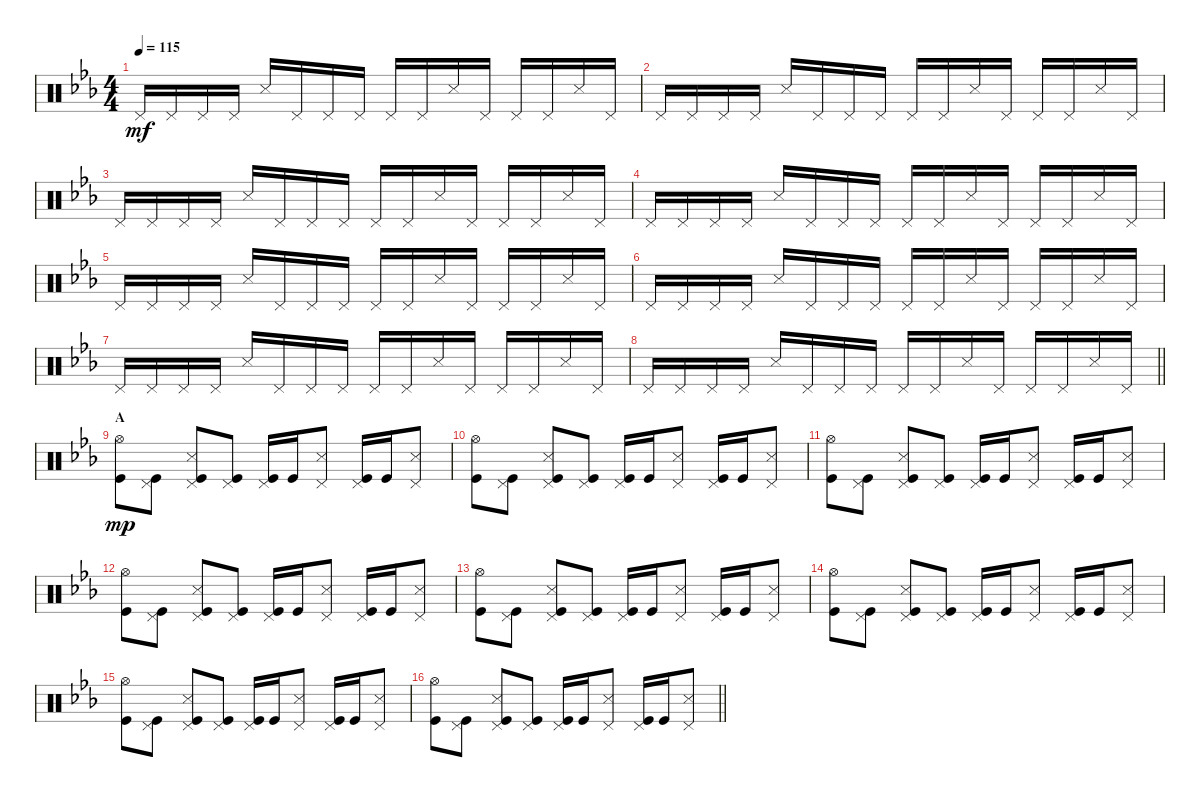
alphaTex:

\track "" {instrument percussion}
\staff {score}
\articulation defaults
\ts (4 4)
\tempo 115
\clef neutral
\ks cminor "Pedal Hi-Hat (hit)".16{dy mf} "Pedal Hi-Hat (hit)".16 "Pedal Hi-Hat (hit)".16 "Pedal Hi-Hat (hit)".16 "Snare (side stick) 3".16 "Pedal Hi-Hat (hit)".16 "Pedal Hi-Hat (hit)".16 "Pedal Hi-Hat (hit)".16 "Pedal Hi-Hat (hit)".16 "Pedal Hi-Hat (hit)".16 "Snare (side stick) 3".16 "Pedal Hi-Hat (hit)".16 "Pedal Hi-Hat (hit)".16 "Pedal Hi-Hat (hit)".16 "Snare (side stick) 3".16 "Pedal Hi-Hat (hit)".16
|
"Pedal Hi-Hat (hit)".16 "Pedal Hi-Hat (hit)".16 "Pedal Hi-Hat (hit)".16 "Pedal Hi-Hat (hit)".16 "Snare (side stick) 3".16 "Pedal Hi-Hat (hit)".16 "Pedal Hi-Hat (hit)".16 "Pedal Hi-Hat (hit)".16 "Pedal Hi-Hat (hit)".16 "Pedal Hi-Hat (hit)".16 "Snare (side stick) 3".16 "Pedal Hi-Hat (hit)".16 "Pedal Hi-Hat (hit)".16 "Pedal Hi-Hat (hit)".16 "Snare (side stick) 3".16 "Pedal Hi-Hat (hit)".16 |
"Pedal Hi-Hat (hit)".16 "Pedal Hi-Hat (hit)".16 "Pedal Hi-Hat (hit)".16 "Pedal Hi-Hat (hit)".16 "Snare (side stick) 3".16 "Pedal Hi-Hat (hit)".16 "Pedal Hi-Hat (hit)".16 "Pedal Hi-Hat (hit)".16 "Pedal Hi-Hat (hit)".16 "Pedal Hi-Hat (hit)".16 "Snare (side stick) 3".16 "Pedal Hi-Hat (hit)".16 "Pedal Hi-Hat (hit)".16 "Pedal Hi-Hat (hit)".16 "Snare (side stick) 3".16 "Pedal Hi-Hat (hit)".16 |
"Pedal Hi-Hat (hit)".16 "Pedal Hi-Hat (hit)".16 "Pedal Hi-Hat (hit)".16 "Pedal Hi-Hat (hit)".16 "Snare (side stick) 3".16 "Pedal Hi-Hat (hit)".16 "Pedal Hi-Hat (hit)".16 "Pedal Hi-Hat (hit)".16 "Pedal Hi-Hat (hit)".16 "Pedal Hi-Hat (hit)".16 "Snare (side stick) 3".16 "Pedal Hi-Hat (hit)".16 "Pedal Hi-Hat (hit)".16 "Pedal Hi-Hat (hit)".16 "Snare (side stick) 3".16 "Pedal Hi-Hat (hit)".16 |
"Pedal Hi-Hat (hit)".16 "Pedal Hi-Hat (hit)".16 "Pedal Hi-Hat (hit)".16 "Pedal Hi-Hat (hit)".16 "Snare (side stick) 3".16 "Pedal Hi-Hat (hit)".16 "Pedal Hi-Hat (hit)".16 "Pedal Hi-Hat (hit)".16 "Pedal Hi-Hat (hit)".16 "Pedal Hi-Hat (hit)".16 "Snare (side stick) 3".16 "Pedal Hi-Hat (hit)".16 "Pedal Hi-Hat (hit)".16 "Pedal Hi-Hat (hit)".16 "Snare (side stick) 3".16 "Pedal Hi-Hat (hit)".16 |
"Pedal Hi-Hat (hit)".16 "Pedal Hi-Hat (hit)".16 "Pedal Hi-Hat (hit)".16 "Pedal Hi-Hat (hit)".16 "Snare (side stick) 3".16 "Pedal Hi-Hat (hit)".16 "Pedal Hi-Hat (hit)".16 "Pedal Hi-Hat (hit)".16 "Pedal Hi-Hat (hit)".16 "Pedal Hi-Hat (hit)".16 "Snare (side stick) 3".16 "Pedal Hi-Hat (hit)".16 "Pedal Hi-Hat (hit)".16 "Pedal Hi-Hat (hit)".16 "Snare (side stick) 3".16 "Pedal Hi-Hat (hit)".16 |
"Pedal Hi-Hat (hit)".16 "Pedal Hi-Hat (hit)".16 "Pedal Hi-Hat (hit)".16 "Pedal Hi-Hat (hit)".16 "Snare (side stick) 3".16 "Pedal Hi-Hat (hit)".16 "Pedal Hi-Hat (hit)".16 "Pedal Hi-Hat (hit)".16 "Pedal Hi-Hat (hit)".16 "Pedal Hi-Hat (hit)".16 "Snare (side stick) 3".16 "Pedal Hi-Hat (hit)".16 "Pedal Hi-Hat (hit)".16 "Pedal Hi-Hat (hit)".16 "Snare (side stick) 3".16 "Pedal Hi-Hat (hit)".16 |
\barLineRight lightlight "Pedal Hi-Hat (hit)".16 "Pedal Hi-Hat (hit)".16 "Pedal Hi-Hat (hit)".16 "Pedal Hi-Hat (hit)".16 "Snare (side stick) 3".16 "Pedal Hi-Hat (hit)".16 "Pedal Hi-Hat (hit)".16 "Pedal Hi-Hat (hit)".16 "Pedal Hi-Hat (hit)".16 "Pedal Hi-Hat (hit)".16 "Snare (side stick) 3".16 "Pedal Hi-Hat (hit)".16 "Pedal Hi-Hat (hit)".16 "Pedal Hi-Hat (hit)".16 "Snare (side stick) 3".16 "Pedal Hi-Hat (hit)".16
|
\section ("" "A")
("Hi-Hat (open)" "Kick (hit)").8{dy mp volume 16} ("Pedal Hi-Hat (hit)" "Kick (hit)").8 ("Pedal Hi-Hat (hit)" "Snare (side stick) 3" "Kick (hit)").8 ("Pedal Hi-Hat (hit)" "Kick (hit)").8 ("Pedal Hi-Hat (hit)" "Kick (hit)").16 "Kick (hit)".16 ("Pedal Hi-Hat (hit)" "Snare (side stick) 3").8 ("Pedal Hi-Hat (hit)" "Kick (hit)").16 "Kick (hit)".16 ("Pedal Hi-Hat (hit)" "Snare (side stick) 3").8 |
("Hi-Hat (open)" "Kick (hit)").8 ("Pedal Hi-Hat (hit)" "Kick (hit)").8 ("Pedal Hi-Hat (hit)" "Snare (side stick) 3" "Kick (hit)").8 ("Pedal Hi-Hat (hit)" "Kick (hit)").8 ("Pedal Hi-Hat (hit)" "Kick (hit)").16 "Kick (hit)".16 ("Pedal Hi-Hat (hit)" "Snare (side stick) 3").8 ("Pedal Hi-Hat (hit)" "Kick (hit)").16 "Kick (hit)".16 ("Pedal Hi-Hat (hit)" "Snare (side stick) 3").8 |
("Hi-Hat (open)" "Kick (hit)").8 ("Pedal Hi-Hat (hit)" "Kick (hit)").8 ("Pedal Hi-Hat (hit)" "Snare (side stick) 3" "Kick (hit)").8 ("Pedal Hi-Hat (hit)" "Kick (hit)").8 ("Pedal Hi-Hat (hit)" "Kick (hit)").16 "Kick (hit)".16 ("Pedal Hi-Hat (hit)" "Snare (side stick) 3").8 ("Pedal Hi-Hat (hit)" "Kick (hit)").16 "Kick (hit)".16 ("Pedal Hi-Hat (hit)" "Snare (side stick) 3").8 |
("Hi-Hat (open)" "Kick (hit)").8 ("Pedal Hi-Hat (hit)" "Kick (hit)").8 ("Pedal Hi-Hat (hit)" "Snare (side stick) 3" "Kick (hit)").8 ("Pedal Hi-Hat (hit)" "Kick (hit)").8 ("Pedal Hi-Hat (hit)" "Kick (hit)").16 "Kick (hit)".16 ("Pedal Hi-Hat (hit)" "Snare (side stick) 3").8 ("Pedal Hi-Hat (hit)" "Kick (hit)").16 "Kick (hit)".16 ("Pedal Hi-Hat (hit)" "Snare (side stick) 3").8 |
("Hi-Hat (open)" "Kick (hit)").8 ("Pedal Hi-Hat (hit)" "Kick (hit)").8 ("Pedal Hi-Hat (hit)" "Snare (side stick) 3" "Kick (hit)").8 ("Pedal Hi-Hat (hit)" "Kick (hit)").8 ("Pedal Hi-Hat (hit)" "Kick (hit)").16 "Kick (hit)".16 ("Pedal Hi-Hat (hit)" "Snare (side stick) 3").8 ("Pedal Hi-Hat (hit)" "Kick (hit)").16 "Kick (hit)".16 ("Pedal Hi-Hat (hit)" "Snare (side stick) 3").8 |
("Hi-Hat (open)" "Kick (hit)").8 ("Pedal Hi-Hat (hit)" "Kick (hit)").8 ("Pedal Hi-Hat (hit)" "Snare (side stick) 3" "Kick (hit)").8 ("Pedal Hi-Hat (hit)" "Kick (hit)").8 ("Pedal Hi-Hat (hit)" "Kick (hit)").16 "Kick (hit)".16 ("Pedal Hi-Hat (hit)" "Snare (side stick) 3").8 ("Pedal Hi-Hat (hit)" "Kick (hit)").16 "Kick (hit)".16 ("Pedal Hi-Hat (hit)" "Snare (side stick) 3").8 |
("Hi-Hat (open)" "Kick (hit)").8 ("Pedal Hi-Hat (hit)" "Kick (hit)").8 ("Pedal Hi-Hat (hit)" "Snare (side stick) 3" "Kick (hit)").8 ("Pedal Hi-Hat (hit)" "Kick (hit)").8 ("Pedal Hi-Hat (hit)" "Kick (hit)").16 "Kick (hit)".16 ("Pedal Hi-Hat (hit)" "Snare (side stick) 3").8 ("Pedal Hi-Hat (hit)" "Kick (hit)").16 "Kick (hit)".16 ("Pedal Hi-Hat (hit)" "Snare (side stick) 3").8 |
\barLineRight lightlight
("Hi-Hat (open)" "Kick (hit)").8 ("Pedal Hi-Hat (hit)" "Kick (hit)").8 ("Pedal Hi-Hat (hit)" "Snare (side stick) 3" "Kick (hit)").8 ("Pedal Hi-Hat (hit)" "Kick (hit)").8 ("Pedal Hi-Hat (hit)" "Kick (hit)").16 "Kick (hit)".16 ("Pedal Hi-Hat (hit)" "Snare (side stick) 3").8 ("Pedal Hi-Hat (hit)" "Kick (hit)").16 "Kick (hit)".16 ("Pedal Hi-Hat (hit)" "Snare (side stick) 3").8
